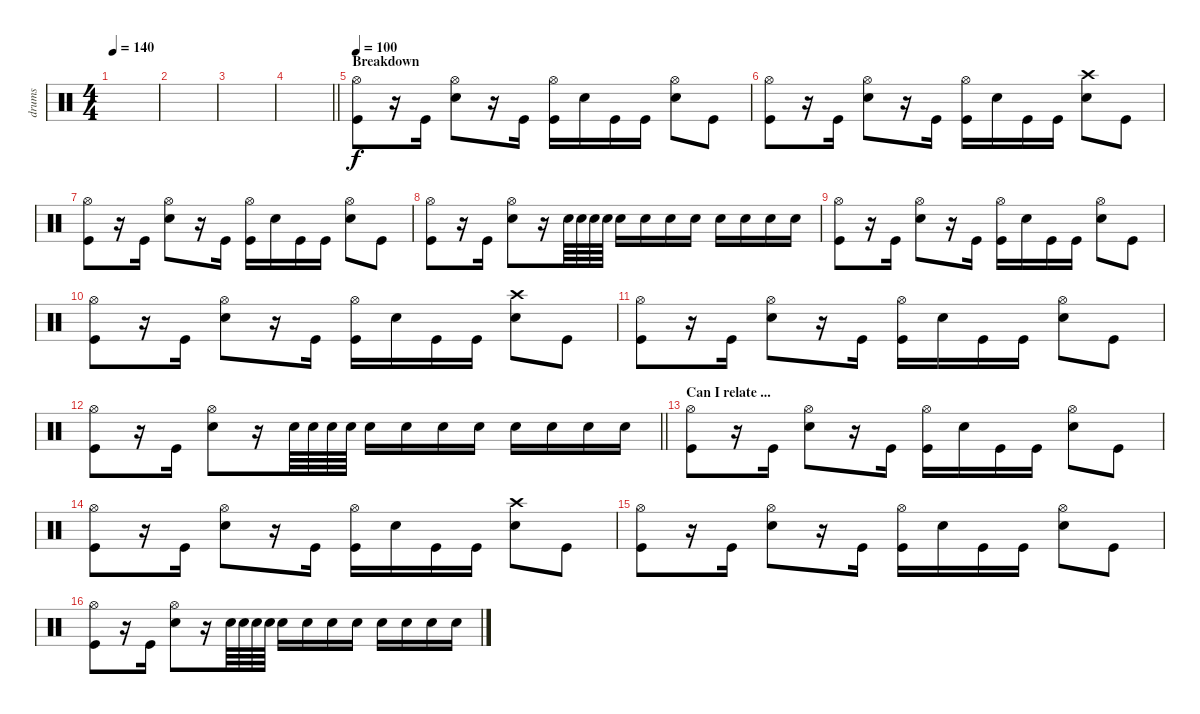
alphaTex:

\track ("drums" "drums") {instrument percussion}
\staff {score}
\articulation defaults
\ts (4 4)
\tempo 140
\clef neutral
\ks c
|
|
|
\barLineRight lightlight
|
\section ("" "Breakdown")
\tempo 100
("Hi-Hat (open)" "Kick (hit)").8 r.16 "Kick (hit)".16 ("Hi-Hat (open)" "Snare (hit) 2").8 r.16 "Kick (hit)".16 ("Hi-Hat (open)" "Kick (hit)").16 "Snare (hit) 2".16 "Kick (hit)".16 "Kick (hit)".16 ("Hi-Hat (open)" "Snare (hit) 2").8 "Kick (hit)".8 |
("Hi-Hat (open)" "Kick (hit)").8 r.16 "Kick (hit)".16 ("Hi-Hat (open)" "Snare (hit) 2").8 r.16 "Kick (hit)".16 ("Hi-Hat (open)" "Kick (hit)").16 "Snare (hit) 2".16 "Kick (hit)".16 "Kick (hit)".16 ("Crash high (hit)" "Snare (hit) 2").8 "Kick (hit)".8 |
("Hi-Hat (open)" "Kick (hit)").8 r.16 "Kick (hit)".16 ("Hi-Hat (open)" "Snare (hit) 2").8 r.16 "Kick (hit)".16 ("Hi-Hat (open)" "Kick (hit)").16 "Snare (hit) 2".16 "Kick (hit)".16 "Kick (hit)".16 ("Hi-Hat (open)" "Snare (hit) 2").8 "Kick (hit)".8 |
("Hi-Hat (open)" "Kick (hit)").8 r.16 "Kick (hit)".16 ("Hi-Hat (open)" "Snare (hit) 2").8 r.16 "Snare (hit) 2".64 "Snare (hit) 2".64 "Snare (hit) 2".64 "Snare (hit) 2".64 "Snare (hit) 2".16 "Snare (hit) 2".16 "Snare (hit) 2".16 "Snare (hit) 2".16 "Snare (hit) 2".16 "Snare (hit) 2".16 "Snare (hit) 2".16 "Snare (hit) 2".16 |
("Hi-Hat (open)" "Kick (hit)").8 r.16 "Kick (hit)".16 ("Hi-Hat (open)" "Snare (hit) 2").8 r.16 "Kick (hit)".16 ("Hi-Hat (open)" "Kick (hit)").16 "Snare (hit) 2".16 "Kick (hit)".16 "Kick (hit)".16 ("Hi-Hat (open)" "Snare (hit) 2").8 "Kick (hit)".8 |
("Hi-Hat (open)" "Kick (hit)").8 r.16 "Kick (hit)".16 ("Hi-Hat (open)" "Snare (hit) 2").8 r.16 "Kick (hit)".16 ("Hi-Hat (open)" "Kick (hit)").16 "Snare (hit) 2".16 "Kick (hit)".16 "Kick (hit)".16 ("Crash high (hit)" "Snare (hit) 2").8 "Kick (hit)".8 |
("Hi-Hat (open)" "Kick (hit)").8 r.16 "Kick (hit)".16 ("Hi-Hat (open)" "Snare (hit) 2").8 r.16 "Kick (hit)".16 ("Hi-Hat (open)" "Kick (hit)").16 "Snare (hit) 2".16 "Kick (hit)".16 "Kick (hit)".16 ("Hi-Hat (open)" "Snare (hit) 2").8 "Kick (hit)".8 |
\barLineRight lightlight
("Hi-Hat (open)" "Kick (hit)").8 r.16 "Kick (hit)".16 ("Hi-Hat (open)" "Snare (hit) 2").8 r.16 "Snare (hit) 2".64 "Snare (hit) 2".64 "Snare (hit) 2".64 "Snare (hit) 2".64 "Snare (hit) 2".16 "Snare (hit) 2".16 "Snare (hit) 2".16 "Snare (hit) 2".16 "Snare (hit) 2".16 "Snare (hit) 2".16 "Snare (hit) 2".16 "Snare (hit) 2".16 |
\section ("" "Can I relate ...")
("Hi-Hat (open)" "Kick (hit)").8 r.16 "Kick (hit)".16 ("Hi-Hat (open)" "Snare (hit) 2").8 r.16 "Kick (hit)".16 ("Hi-Hat (open)" "Kick (hit)").16 "Snare (hit) 2".16 "Kick (hit)".16 "Kick (hit)".16 ("Hi-Hat (open)" "Snare (hit) 2").8 "Kick (hit)".8 |
("Hi-Hat (open)" "Kick (hit)").8 r.16 "Kick (hit)".16 ("Hi-Hat (open)" "Snare (hit) 2").8 r.16 "Kick (hit)".16 ("Hi-Hat (open)" "Kick (hit)").16 "Snare (hit) 2".16 "Kick (hit)".16 "Kick (hit)".16 ("Crash high (hit)" "Snare (hit) 2").8 "Kick (hit)".8 |
("Hi-Hat (open)" "Kick (hit)").8 r.16 "Kick (hit)".16 ("Hi-Hat (open)" "Snare (hit) 2").8 r.16 "Kick (hit)".16 ("Hi-Hat (open)" "Kick (hit)").16 "Snare (hit) 2".16 "Kick (hit)".16 "Kick (hit)".16 ("Hi-Hat (open)" "Snare (hit) 2").8 "Kick (hit)".8 |
("Hi-Hat (open)" "Kick (hit)").8 r.16 "Kick (hit)".16 ("Hi-Hat (open)" "Snare (hit) 2").8 r.16 "Snare (hit) 2".64 "Snare (hit) 2".64 "Snare (hit) 2".64 "Snare (hit) 2".64 "Snare (hit) 2".16 "Snare (hit) 2".16 "Snare (hit) 2".16 "Snare (hit) 2".16 "Snare (hit) 2".16 "Snare (hit) 2".16 "Snare (hit) 2".16 "Snare (hit) 2".16
